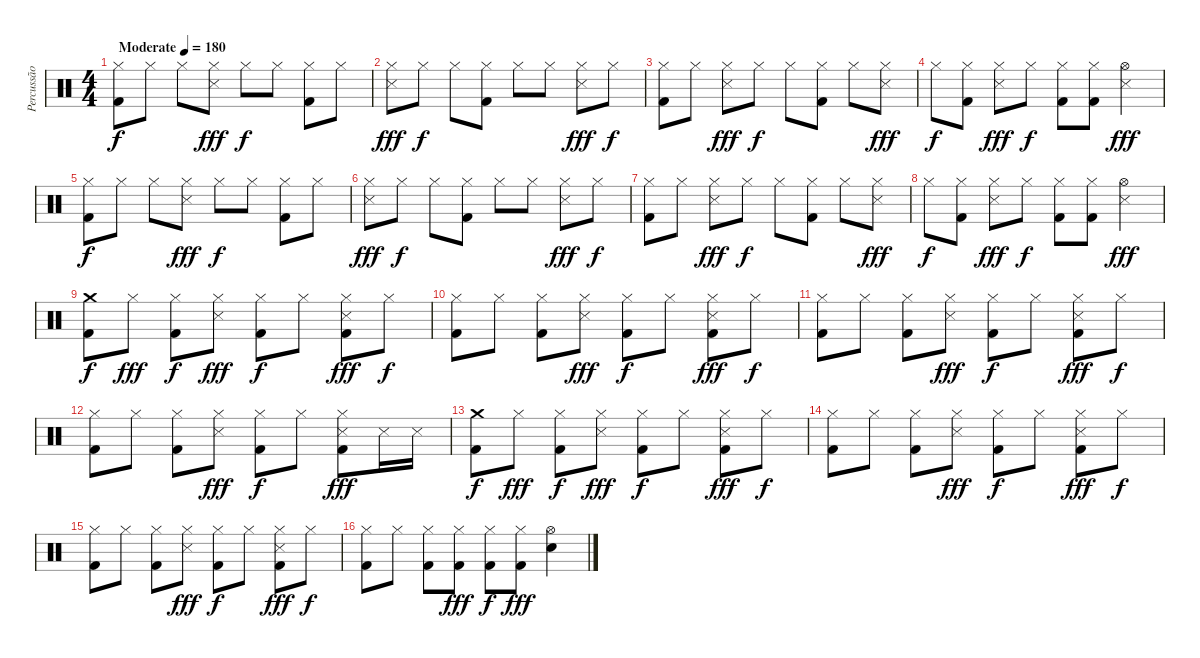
\track ("Percussão" "Percussão") {instrument percussion}
\staff {score}
\articulation defaults
\ts (4 4)
\tempo (180 "Moderate")
\clef neutral
\ks c
("Hi-Hat (closed)" "Kick (hit) 2").8{dy f} "Hi-Hat (closed)".8 "Hi-Hat (closed)".8 ("Hi-Hat (closed)" "Snare (side stick) 3").8{dy fff} "Hi-Hat (closed)".8{dy f} "Hi-Hat (closed)".8 ("Hi-Hat (closed)" "Kick (hit) 2").8 "Hi-Hat (closed)".8 |
("Hi-Hat (closed)" "Snare (side stick) 3").8{dy fff} "Hi-Hat (closed)".8{dy f} "Hi-Hat (closed)".8 ("Hi-Hat (closed)" "Kick (hit) 2").8 "Hi-Hat (closed)".8 "Hi-Hat (closed)".8 ("Hi-Hat (closed)" "Snare (side stick) 3").8{dy fff} "Hi-Hat (closed)".8{dy f} |
("Hi-Hat (closed)" "Kick (hit) 2").8 "Hi-Hat (closed)".8 ("Hi-Hat (closed)" "Snare (side stick) 3").8{dy fff} "Hi-Hat (closed)".8{dy f} "Hi-Hat (closed)".8 ("Hi-Hat (closed)" "Kick (hit) 2").8 "Hi-Hat (closed)".8 ("Hi-Hat (closed)" "Snare (side stick) 3").8{dy fff} |
"Hi-Hat (closed)".8{dy f} ("Hi-Hat (closed)" "Kick (hit) 2").8 ("Hi-Hat (closed)" "Snare (side stick) 3").8{dy fff} "Hi-Hat (closed)".8{dy f} ("Hi-Hat (closed)" "Kick (hit) 2").8 ("Hi-Hat (closed)" "Kick (hit) 2").8 ("Hi-Hat (open)" "Snare (side stick) 3").4{dy fff} |
("Hi-Hat (closed)" "Kick (hit) 2").8{dy f} "Hi-Hat (closed)".8 "Hi-Hat (closed)".8 ("Hi-Hat (closed)" "Snare (side stick) 3").8{dy fff} "Hi-Hat (closed)".8{dy f} "Hi-Hat (closed)".8 ("Hi-Hat (closed)" "Kick (hit) 2").8 "Hi-Hat (closed)".8 |
("Hi-Hat (closed)" "Snare (side stick) 3").8{dy fff} "Hi-Hat (closed)".8{dy f} "Hi-Hat (closed)".8 ("Hi-Hat (closed)" "Kick (hit) 2").8 "Hi-Hat (closed)".8 "Hi-Hat (closed)".8 ("Hi-Hat (closed)" "Snare (side stick) 3").8{dy fff} "Hi-Hat (closed)".8{dy f} |
("Hi-Hat (closed)" "Kick (hit) 2").8 "Hi-Hat (closed)".8 ("Hi-Hat (closed)" "Snare (side stick) 3").8{dy fff} "Hi-Hat (closed)".8{dy f} "Hi-Hat (closed)".8 ("Hi-Hat (closed)" "Kick (hit) 2").8 "Hi-Hat (closed)".8 ("Hi-Hat (closed)" "Snare (side stick) 3").8{dy fff} |
"Hi-Hat (closed)".8{dy f} ("Hi-Hat (closed)" "Kick (hit) 2").8 ("Hi-Hat (closed)" "Snare (side stick) 3").8{dy fff} "Hi-Hat (closed)".8{dy f} ("Hi-Hat (closed)" "Kick (hit) 2").8 ("Hi-Hat (closed)" "Kick (hit) 2").8 ("Hi-Hat (open)" "Snare (side stick) 3").4{dy fff} |
("Crash medium (hit)" "Kick (hit) 2").8{dy f} "Hi-Hat (closed)".8{dy fff} ("Hi-Hat (closed)" "Kick (hit) 2").8{dy f} ("Hi-Hat (closed)" "Snare (side stick) 3").8{dy fff} ("Hi-Hat (closed)" "Kick (hit) 2").8{dy f} "Hi-Hat (closed)".8 ("Hi-Hat (closed)" "Snare (side stick) 3" "Kick (hit) 2").8{dy fff} "Hi-Hat (closed)".8{dy f} |
("Hi-Hat (closed)" "Kick (hit) 2").8 "Hi-Hat (closed)".8 ("Hi-Hat (closed)" "Kick (hit) 2").8 ("Hi-Hat (closed)" "Snare (side stick) 3").8{dy fff} ("Hi-Hat (closed)" "Kick (hit) 2").8{dy f} "Hi-Hat (closed)".8 ("Hi-Hat (closed)" "Snare (side stick) 3" "Kick (hit) 2").8{dy fff} "Hi-Hat (closed)".8{dy f} |
("Hi-Hat (closed)" "Kick (hit) 2").8 "Hi-Hat (closed)".8 ("Hi-Hat (closed)" "Kick (hit) 2").8 ("Hi-Hat (closed)" "Snare (side stick) 3").8{dy fff} ("Hi-Hat (closed)" "Kick (hit) 2").8{dy f} "Hi-Hat (closed)".8 ("Hi-Hat (closed)" "Snare (side stick) 3" "Kick (hit) 2").8{dy fff} "Hi-Hat (closed)".8{dy f} |
("Hi-Hat (closed)" "Kick (hit) 2").8 "Hi-Hat (closed)".8 ("Hi-Hat (closed)" "Kick (hit) 2").8 ("Hi-Hat (closed)" "Snare (side stick) 3").8{dy fff} ("Hi-Hat (closed)" "Kick (hit) 2").8{dy f} "Hi-Hat (closed)".8 ("Hi-Hat (closed)" "Snare (side stick) 3" "Kick (hit) 2").8{dy fff} "Snare (side stick) 3".16 "Snare (side stick) 3".16 |
("Crash medium (hit)" "Kick (hit) 2").8{dy f} "Hi-Hat (closed)".8{dy fff} ("Hi-Hat (closed)" "Kick (hit) 2").8{dy f} ("Hi-Hat (closed)" "Snare (side stick) 3").8{dy fff} ("Hi-Hat (closed)" "Kick (hit) 2").8{dy f} "Hi-Hat (closed)".8 ("Hi-Hat (closed)" "Snare (side stick) 3" "Kick (hit) 2").8{dy fff} "Hi-Hat (closed)".8{dy f} |
("Hi-Hat (closed)" "Kick (hit) 2").8 "Hi-Hat (closed)".8 ("Hi-Hat (closed)" "Kick (hit) 2").8 ("Hi-Hat (closed)" "Snare (side stick) 3").8{dy fff} ("Hi-Hat (closed)" "Kick (hit) 2").8{dy f} "Hi-Hat (closed)".8 ("Hi-Hat (closed)" "Snare (side stick) 3" "Kick (hit) 2").8{dy fff} "Hi-Hat (closed)".8{dy f} |
("Hi-Hat (closed)" "Kick (hit) 2").8 "Hi-Hat (closed)".8 ("Hi-Hat (closed)" "Kick (hit) 2").8 ("Hi-Hat (closed)" "Snare (side stick) 3").8{dy fff} ("Hi-Hat (closed)" "Kick (hit) 2").8{dy f} "Hi-Hat (closed)".8 ("Hi-Hat (closed)" "Snare (side stick) 3" "Kick (hit) 2").8{dy fff} "Hi-Hat (closed)".8{dy f} |
("Hi-Hat (closed)" "Kick (hit) 2").8 "Hi-Hat (closed)".8 ("Hi-Hat (closed)" "Kick (hit) 2").8 ("Hi-Hat (closed)" "Kick (hit) 2").8{dy fff} ("Hi-Hat (closed)" "Kick (hit) 2").8{dy f} ("Hi-Hat (closed)" "Kick (hit) 2").8{dy fff} ("Hi-Hat (open)" "Electric Snare (hit)").4
